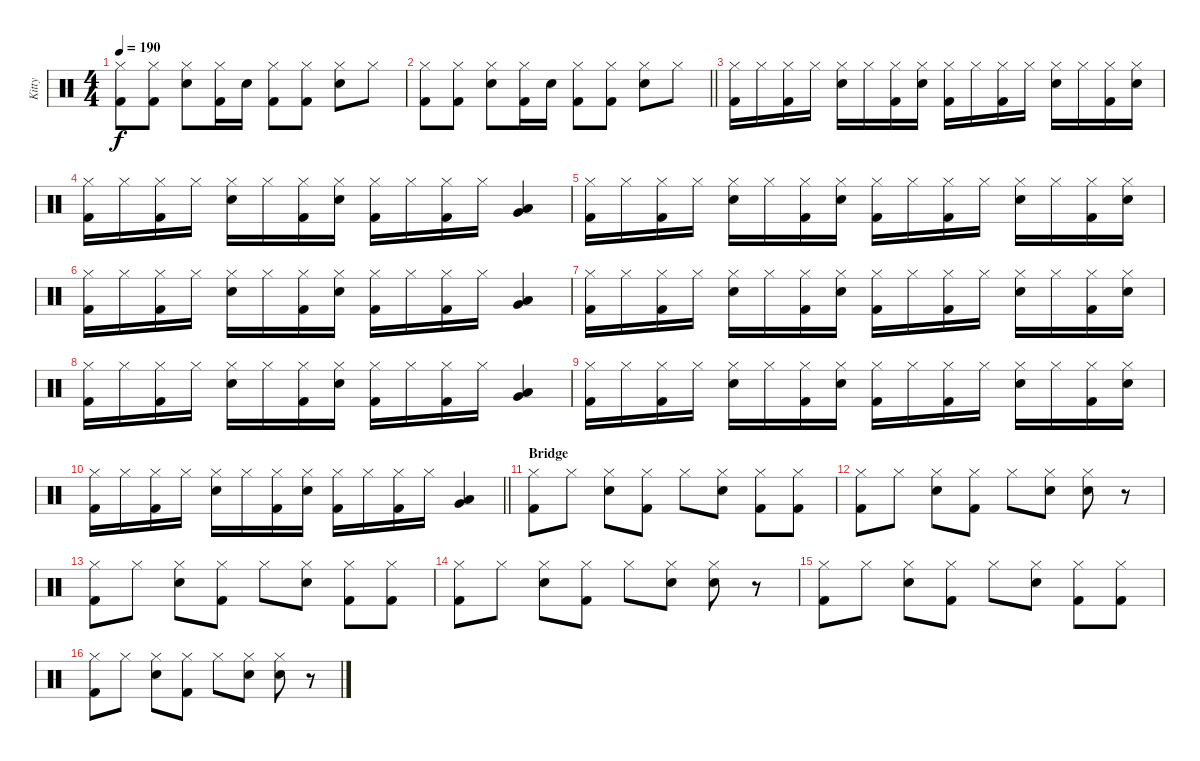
\track ("Kitty" "Kitty") {instrument percussion}
\staff {score}
\articulation defaults
\ts (4 4)
\tempo 190
\clef neutral
\ks c
("Hi-Hat (closed)" "Kick (hit) 2").8{dy f} ("Hi-Hat (closed)" "Kick (hit) 2").8 ("Hi-Hat (closed)" "Snare (hit) 2").8 ("Hi-Hat (closed)" "Kick (hit) 2").16 "Snare (hit) 2".16 ("Hi-Hat (closed)" "Kick (hit) 2").8 ("Hi-Hat (closed)" "Kick (hit) 2").8 ("Hi-Hat (closed)" "Snare (hit) 2").8 "Hi-Hat (closed)".8 |
\barLineRight lightlight
("Hi-Hat (closed)" "Kick (hit) 2").8 ("Hi-Hat (closed)" "Kick (hit) 2").8 ("Hi-Hat (closed)" "Snare (hit) 2").8 ("Hi-Hat (closed)" "Kick (hit) 2").16 "Snare (hit) 2".16 ("Hi-Hat (closed)" "Kick (hit) 2").8 ("Hi-Hat (closed)" "Kick (hit) 2").8 ("Hi-Hat (closed)" "Snare (hit) 2").8 "Hi-Hat (closed)".8 |
("Hi-Hat (closed)" "Kick (hit) 2").16 "Hi-Hat (closed)".16 ("Hi-Hat (closed)" "Kick (hit) 2").16 "Hi-Hat (closed)".16 ("Hi-Hat (closed)" "Snare (hit) 2").16 "Hi-Hat (closed)".16 ("Hi-Hat (closed)" "Kick (hit) 2").16 ("Hi-Hat (closed)" "Snare (hit) 2").16 ("Hi-Hat (closed)" "Kick (hit) 2").16 "Hi-Hat (closed)".16 ("Hi-Hat (closed)" "Kick (hit) 2").16 "Hi-Hat (closed)".16 ("Hi-Hat (closed)" "Snare (hit) 2").16 "Hi-Hat (closed)".16 ("Hi-Hat (closed)" "Kick (hit) 2").16 ("Hi-Hat (closed)" "Snare (hit) 2").16 |
("Hi-Hat (closed)" "Kick (hit) 2").16 "Hi-Hat (closed)".16 ("Hi-Hat (closed)" "Kick (hit) 2").16 "Hi-Hat (closed)".16 ("Hi-Hat (closed)" "Snare (hit) 2").16 "Hi-Hat (closed)".16 ("Hi-Hat (closed)" "Kick (hit) 2").16 ("Hi-Hat (closed)" "Snare (hit) 2").16 ("Hi-Hat (closed)" "Kick (hit) 2").16 "Hi-Hat (closed)".16 ("Hi-Hat (closed)" "Kick (hit) 2").16 "Hi-Hat (closed)".16 ("Very Low Tom (hit)" "Low Floor Tom (hit)").4 |
("Hi-Hat (closed)" "Kick (hit) 2").16 "Hi-Hat (closed)".16 ("Hi-Hat (closed)" "Kick (hit) 2").16 "Hi-Hat (closed)".16 ("Hi-Hat (closed)" "Snare (hit) 2").16 "Hi-Hat (closed)".16 ("Hi-Hat (closed)" "Kick (hit) 2").16 ("Hi-Hat (closed)" "Snare (hit) 2").16 ("Hi-Hat (closed)" "Kick (hit) 2").16 "Hi-Hat (closed)".16 ("Hi-Hat (closed)" "Kick (hit) 2").16 "Hi-Hat (closed)".16 ("Hi-Hat (closed)" "Snare (hit) 2").16 "Hi-Hat (closed)".16 ("Hi-Hat (closed)" "Kick (hit) 2").16 ("Hi-Hat (closed)" "Snare (hit) 2").16 |
("Hi-Hat (closed)" "Kick (hit) 2").16 "Hi-Hat (closed)".16 ("Hi-Hat (closed)" "Kick (hit) 2").16 "Hi-Hat (closed)".16 ("Hi-Hat (closed)" "Snare (hit) 2").16 "Hi-Hat (closed)".16 ("Hi-Hat (closed)" "Kick (hit) 2").16 ("Hi-Hat (closed)" "Snare (hit) 2").16 ("Hi-Hat (closed)" "Kick (hit) 2").16 "Hi-Hat (closed)".16 ("Hi-Hat (closed)" "Kick (hit) 2").16 "Hi-Hat (closed)".16 ("Very Low Tom (hit)" "Low Floor Tom (hit)").4 |
("Hi-Hat (closed)" "Kick (hit) 2").16 "Hi-Hat (closed)".16 ("Hi-Hat (closed)" "Kick (hit) 2").16 "Hi-Hat (closed)".16 ("Hi-Hat (closed)" "Snare (hit) 2").16 "Hi-Hat (closed)".16 ("Hi-Hat (closed)" "Kick (hit) 2").16 ("Hi-Hat (closed)" "Snare (hit) 2").16 ("Hi-Hat (closed)" "Kick (hit) 2").16 "Hi-Hat (closed)".16 ("Hi-Hat (closed)" "Kick (hit) 2").16 "Hi-Hat (closed)".16 ("Hi-Hat (closed)" "Snare (hit) 2").16 "Hi-Hat (closed)".16 ("Hi-Hat (closed)" "Kick (hit) 2").16 ("Hi-Hat (closed)" "Snare (hit) 2").16 |
("Hi-Hat (closed)" "Kick (hit) 2").16 "Hi-Hat (closed)".16 ("Hi-Hat (closed)" "Kick (hit) 2").16 "Hi-Hat (closed)".16 ("Hi-Hat (closed)" "Snare (hit) 2").16 "Hi-Hat (closed)".16 ("Hi-Hat (closed)" "Kick (hit) 2").16 ("Hi-Hat (closed)" "Snare (hit) 2").16 ("Hi-Hat (closed)" "Kick (hit) 2").16 "Hi-Hat (closed)".16 ("Hi-Hat (closed)" "Kick (hit) 2").16 "Hi-Hat (closed)".16 ("Very Low Tom (hit)" "Low Floor Tom (hit)").4 |
("Hi-Hat (closed)" "Kick (hit) 2").16 "Hi-Hat (closed)".16 ("Hi-Hat (closed)" "Kick (hit) 2").16 "Hi-Hat (closed)".16 ("Hi-Hat (closed)" "Snare (hit) 2").16 "Hi-Hat (closed)".16 ("Hi-Hat (closed)" "Kick (hit) 2").16 ("Hi-Hat (closed)" "Snare (hit) 2").16 ("Hi-Hat (closed)" "Kick (hit) 2").16 "Hi-Hat (closed)".16 ("Hi-Hat (closed)" "Kick (hit) 2").16 "Hi-Hat (closed)".16 ("Hi-Hat (closed)" "Snare (hit) 2").16 "Hi-Hat (closed)".16 ("Hi-Hat (closed)" "Kick (hit) 2").16 ("Hi-Hat (closed)" "Snare (hit) 2").16 |
\barLineRight lightlight
("Hi-Hat (closed)" "Kick (hit) 2").16 "Hi-Hat (closed)".16 ("Hi-Hat (closed)" "Kick (hit) 2").16 "Hi-Hat (closed)".16 ("Hi-Hat (closed)" "Snare (hit) 2").16 "Hi-Hat (closed)".16 ("Hi-Hat (closed)" "Kick (hit) 2").16 ("Hi-Hat (closed)" "Snare (hit) 2").16 ("Hi-Hat (closed)" "Kick (hit) 2").16 "Hi-Hat (closed)".16 ("Hi-Hat (closed)" "Kick (hit) 2").16 "Hi-Hat (closed)".16 ("Very Low Tom (hit)" "Low Floor Tom (hit)").4 |
\section ("" "Bridge")
("Hi-Hat (closed)" "Kick (hit) 2").8 "Hi-Hat (closed)".8 ("Hi-Hat (closed)" "Snare (hit) 2").8 ("Hi-Hat (closed)" "Kick (hit) 2").8 "Hi-Hat (closed)".8 ("Hi-Hat (closed)" "Snare (hit) 2").8 ("Hi-Hat (closed)" "Kick (hit) 2").8 ("Hi-Hat (closed)" "Kick (hit) 2").8 |
("Hi-Hat (closed)" "Kick (hit) 2").8 "Hi-Hat (closed)".8 ("Hi-Hat (closed)" "Snare (hit) 2").8 ("Hi-Hat (closed)" "Kick (hit) 2").8 "Hi-Hat (closed)".8 ("Hi-Hat (closed)" "Snare (hit) 2").8 ("Hi-Hat (closed)" "Snare (hit) 2").8 r.8 |
("Hi-Hat (closed)" "Kick (hit) 2").8 "Hi-Hat (closed)".8 ("Hi-Hat (closed)" "Snare (hit) 2").8 ("Hi-Hat (closed)" "Kick (hit) 2").8 "Hi-Hat (closed)".8 ("Hi-Hat (closed)" "Snare (hit) 2").8 ("Hi-Hat (closed)" "Kick (hit) 2").8 ("Hi-Hat (closed)" "Kick (hit) 2").8 |
("Hi-Hat (closed)" "Kick (hit) 2").8 "Hi-Hat (closed)".8 ("Hi-Hat (closed)" "Snare (hit) 2").8 ("Hi-Hat (closed)" "Kick (hit) 2").8 "Hi-Hat (closed)".8 ("Hi-Hat (closed)" "Snare (hit) 2").8 ("Hi-Hat (closed)" "Snare (hit) 2").8 r.8 |
("Hi-Hat (closed)" "Kick (hit) 2").8 "Hi-Hat (closed)".8 ("Hi-Hat (closed)" "Snare (hit) 2").8 ("Hi-Hat (closed)" "Kick (hit) 2").8 "Hi-Hat (closed)".8 ("Hi-Hat (closed)" "Snare (hit) 2").8 ("Hi-Hat (closed)" "Kick (hit) 2").8 ("Hi-Hat (closed)" "Kick (hit) 2").8 |
("Hi-Hat (closed)" "Kick (hit) 2").8 "Hi-Hat (closed)".8 ("Hi-Hat (closed)" "Snare (hit) 2").8 ("Hi-Hat (closed)" "Kick (hit) 2").8 "Hi-Hat (closed)".8 ("Hi-Hat (closed)" "Snare (hit) 2").8 ("Hi-Hat (closed)" "Snare (hit) 2").8 r.8
